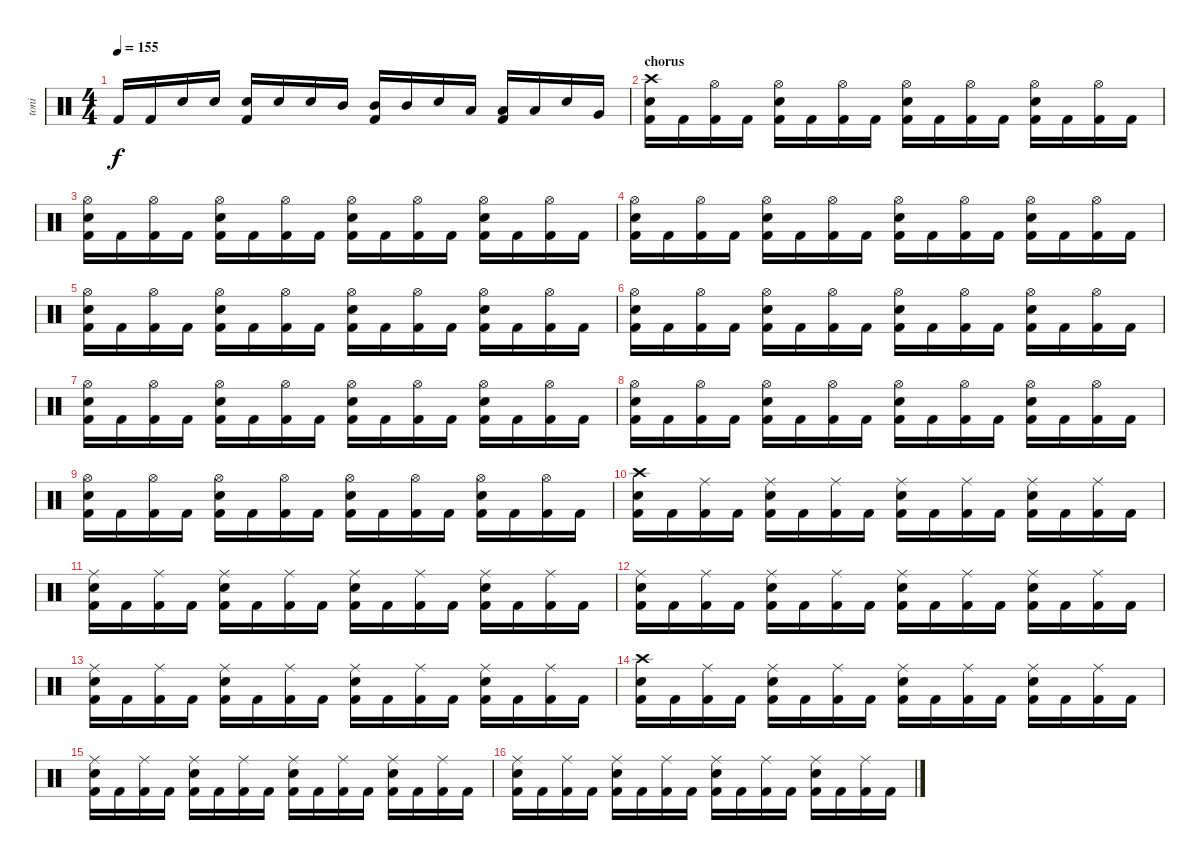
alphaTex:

\track ("toni" "toni") {instrument percussion}
\staff {score}
\articulation defaults
\ts (4 4)
\tempo 155
\clef neutral
\ks c "Kick (hit) 2".16{dy f} "Kick (hit) 2".16 "Snare (hit) 2".16 "Snare (hit) 2".16
("Snare (hit) 2" "Kick (hit) 2").16 "Snare (hit) 2".16 "Snare (hit) 2".16 "Mid Tom (hit)".16 ("Mid Tom (hit)" "Kick (hit) 2").16 "Mid Tom (hit)".16 "Snare (hit) 2".16 "Low Tom (hit)".16 ("Low Tom (hit)" "Kick (hit) 2").16 "Low Tom (hit)".16 "Snare (hit) 2".16 "Very Low Tom (hit)".16 |
\section ("" "chorus")
("Crash high (hit)" "Snare (hit) 2" "Kick (hit) 2").16 "Kick (hit) 2".16 ("Hi-Hat (open)" "Kick (hit) 2").16 "Kick (hit) 2".16 ("Hi-Hat (open)" "Snare (hit) 2" "Kick (hit) 2").16 "Kick (hit) 2".16 ("Hi-Hat (open)" "Kick (hit) 2").16 "Kick (hit) 2".16 ("Hi-Hat (open)" "Snare (hit) 2" "Kick (hit) 2").16 "Kick (hit) 2".16 ("Hi-Hat (open)" "Kick (hit) 2").16 "Kick (hit) 2".16 ("Hi-Hat (open)" "Snare (hit) 2" "Kick (hit) 2").16 "Kick (hit) 2".16 ("Hi-Hat (open)" "Kick (hit) 2").16 "Kick (hit) 2".16 |
("Hi-Hat (open)" "Snare (hit) 2" "Kick (hit) 2").16 "Kick (hit) 2".16 ("Hi-Hat (open)" "Kick (hit) 2").16 "Kick (hit) 2".16 ("Hi-Hat (open)" "Snare (hit) 2" "Kick (hit) 2").16 "Kick (hit) 2".16 ("Hi-Hat (open)" "Kick (hit) 2").16 "Kick (hit) 2".16 ("Hi-Hat (open)" "Snare (hit) 2" "Kick (hit) 2").16 "Kick (hit) 2".16 ("Hi-Hat (open)" "Kick (hit) 2").16 "Kick (hit) 2".16 ("Hi-Hat (open)" "Snare (hit) 2" "Kick (hit) 2").16 "Kick (hit) 2".16 ("Hi-Hat (open)" "Kick (hit) 2").16 "Kick (hit) 2".16 |
("Hi-Hat (open)" "Snare (hit) 2" "Kick (hit) 2").16 "Kick (hit) 2".16 ("Hi-Hat (open)" "Kick (hit) 2").16 "Kick (hit) 2".16 ("Hi-Hat (open)" "Snare (hit) 2" "Kick (hit) 2").16 "Kick (hit) 2".16 ("Hi-Hat (open)" "Kick (hit) 2").16 "Kick (hit) 2".16 ("Hi-Hat (open)" "Snare (hit) 2" "Kick (hit) 2").16 "Kick (hit) 2".16 ("Hi-Hat (open)" "Kick (hit) 2").16 "Kick (hit) 2".16 ("Hi-Hat (open)" "Snare (hit) 2" "Kick (hit) 2").16 "Kick (hit) 2".16 ("Hi-Hat (open)" "Kick (hit) 2").16 "Kick (hit) 2".16 |
("Hi-Hat (open)" "Snare (hit) 2" "Kick (hit) 2").16 "Kick (hit) 2".16 ("Hi-Hat (open)" "Kick (hit) 2").16 "Kick (hit) 2".16 ("Hi-Hat (open)" "Snare (hit) 2" "Kick (hit) 2").16 "Kick (hit) 2".16 ("Hi-Hat (open)" "Kick (hit) 2").16 "Kick (hit) 2".16 ("Hi-Hat (open)" "Snare (hit) 2" "Kick (hit) 2").16 "Kick (hit) 2".16 ("Hi-Hat (open)" "Kick (hit) 2").16 "Kick (hit) 2".16 ("Hi-Hat (open)" "Snare (hit) 2" "Kick (hit) 2").16 "Kick (hit) 2".16 ("Hi-Hat (open)" "Kick (hit) 2").16 "Kick (hit) 2".16 |
("Hi-Hat (open)" "Snare (hit) 2" "Kick (hit) 2").16 "Kick (hit) 2".16 ("Hi-Hat (open)" "Kick (hit) 2").16 "Kick (hit) 2".16 ("Hi-Hat (open)" "Snare (hit) 2" "Kick (hit) 2").16 "Kick (hit) 2".16 ("Hi-Hat (open)" "Kick (hit) 2").16 "Kick (hit) 2".16 ("Hi-Hat (open)" "Snare (hit) 2" "Kick (hit) 2").16 "Kick (hit) 2".16 ("Hi-Hat (open)" "Kick (hit) 2").16 "Kick (hit) 2".16 ("Hi-Hat (open)" "Snare (hit) 2" "Kick (hit) 2").16 "Kick (hit) 2".16 ("Hi-Hat (open)" "Kick (hit) 2").16 "Kick (hit) 2".16 |
("Hi-Hat (open)" "Snare (hit) 2" "Kick (hit) 2").16 "Kick (hit) 2".16 ("Hi-Hat (open)" "Kick (hit) 2").16 "Kick (hit) 2".16 ("Hi-Hat (open)" "Snare (hit) 2" "Kick (hit) 2").16 "Kick (hit) 2".16 ("Hi-Hat (open)" "Kick (hit) 2").16 "Kick (hit) 2".16 ("Hi-Hat (open)" "Snare (hit) 2" "Kick (hit) 2").16 "Kick (hit) 2".16 ("Hi-Hat (open)" "Kick (hit) 2").16 "Kick (hit) 2".16 ("Hi-Hat (open)" "Snare (hit) 2" "Kick (hit) 2").16 "Kick (hit) 2".16 ("Hi-Hat (open)" "Kick (hit) 2").16 "Kick (hit) 2".16 |
("Hi-Hat (open)" "Snare (hit) 2" "Kick (hit) 2").16 "Kick (hit) 2".16 ("Hi-Hat (open)" "Kick (hit) 2").16 "Kick (hit) 2".16 ("Hi-Hat (open)" "Snare (hit) 2" "Kick (hit) 2").16 "Kick (hit) 2".16 ("Hi-Hat (open)" "Kick (hit) 2").16 "Kick (hit) 2".16 ("Hi-Hat (open)" "Snare (hit) 2" "Kick (hit) 2").16 "Kick (hit) 2".16 ("Hi-Hat (open)" "Kick (hit) 2").16 "Kick (hit) 2".16 ("Hi-Hat (open)" "Snare (hit) 2" "Kick (hit) 2").16 "Kick (hit) 2".16 ("Hi-Hat (open)" "Kick (hit) 2").16 "Kick (hit) 2".16 |
("Hi-Hat (open)" "Snare (hit) 2" "Kick (hit) 2").16 "Kick (hit) 2".16 ("Hi-Hat (open)" "Kick (hit) 2").16 "Kick (hit) 2".16 ("Hi-Hat (open)" "Snare (hit) 2" "Kick (hit) 2").16 "Kick (hit) 2".16 ("Hi-Hat (open)" "Kick (hit) 2").16 "Kick (hit) 2".16 ("Hi-Hat (open)" "Snare (hit) 2" "Kick (hit) 2").16 "Kick (hit) 2".16 ("Hi-Hat (open)" "Kick (hit) 2").16 "Kick (hit) 2".16 ("Hi-Hat (open)" "Snare (hit) 2" "Kick (hit) 2").16 "Kick (hit) 2".16 ("Hi-Hat (open)" "Kick (hit) 2").16 "Kick (hit) 2".16 |
("Crash high (hit)" "Snare (hit) 2" "Kick (hit) 2").16 "Kick (hit) 2".16 ("Ride (middle)" "Kick (hit) 2").16 "Kick (hit) 2".16 ("Ride (middle)" "Snare (hit) 2" "Kick (hit) 2").16 "Kick (hit) 2".16 ("Ride (middle)" "Kick (hit) 2").16 "Kick (hit) 2".16 ("Ride (middle)" "Snare (hit) 2" "Kick (hit) 2").16 "Kick (hit) 2".16 ("Ride (middle)" "Kick (hit) 2").16 "Kick (hit) 2".16 ("Ride (middle)" "Snare (hit) 2" "Kick (hit) 2").16 "Kick (hit) 2".16 ("Ride (middle)" "Kick (hit) 2").16 "Kick (hit) 2".16 |
("Ride (middle)" "Snare (hit) 2" "Kick (hit) 2").16 "Kick (hit) 2".16 ("Ride (middle)" "Kick (hit) 2").16 "Kick (hit) 2".16 ("Ride (middle)" "Snare (hit) 2" "Kick (hit) 2").16 "Kick (hit) 2".16 ("Ride (middle)" "Kick (hit) 2").16 "Kick (hit) 2".16 ("Ride (middle)" "Snare (hit) 2" "Kick (hit) 2").16 "Kick (hit) 2".16 ("Ride (middle)" "Kick (hit) 2").16 "Kick (hit) 2".16 ("Ride (middle)" "Snare (hit) 2" "Kick (hit) 2").16 "Kick (hit) 2".16 ("Ride (middle)" "Kick (hit) 2").16 "Kick (hit) 2".16 |
("Ride (middle)" "Snare (hit) 2" "Kick (hit) 2").16 "Kick (hit) 2".16 ("Ride (middle)" "Kick (hit) 2").16 "Kick (hit) 2".16 ("Ride (middle)" "Snare (hit) 2" "Kick (hit) 2").16 "Kick (hit) 2".16 ("Ride (middle)" "Kick (hit) 2").16 "Kick (hit) 2".16 ("Ride (middle)" "Snare (hit) 2" "Kick (hit) 2").16 "Kick (hit) 2".16 ("Ride (middle)" "Kick (hit) 2").16 "Kick (hit) 2".16 ("Ride (middle)" "Snare (hit) 2" "Kick (hit) 2").16 "Kick (hit) 2".16 ("Ride (middle)" "Kick (hit) 2").16 "Kick (hit) 2".16 |
("Ride (middle)" "Snare (hit) 2" "Kick (hit) 2").16 "Kick (hit) 2".16 ("Ride (middle)" "Kick (hit) 2").16 "Kick (hit) 2".16 ("Ride (middle)" "Snare (hit) 2" "Kick (hit) 2").16 "Kick (hit) 2".16 ("Ride (middle)" "Kick (hit) 2").16 "Kick (hit) 2".16 ("Ride (middle)" "Snare (hit) 2" "Kick (hit) 2").16 "Kick (hit) 2".16 ("Ride (middle)" "Kick (hit) 2").16 "Kick (hit) 2".16 ("Ride (middle)" "Snare (hit) 2" "Kick (hit) 2").16 "Kick (hit) 2".16 ("Ride (middle)" "Kick (hit) 2").16 "Kick (hit) 2".16 |
("Crash high (hit)" "Snare (hit) 2" "Kick (hit) 2").16 "Kick (hit) 2".16 ("Ride (middle)" "Kick (hit) 2").16 "Kick (hit) 2".16 ("Ride (middle)" "Snare (hit) 2" "Kick (hit) 2").16 "Kick (hit) 2".16 ("Ride (middle)" "Kick (hit) 2").16 "Kick (hit) 2".16 ("Ride (middle)" "Snare (hit) 2" "Kick (hit) 2").16 "Kick (hit) 2".16 ("Ride (middle)" "Kick (hit) 2").16 "Kick (hit) 2".16 ("Ride (middle)" "Snare (hit) 2" "Kick (hit) 2").16 "Kick (hit) 2".16 ("Ride (middle)" "Kick (hit) 2").16 "Kick (hit) 2".16 |
("Ride (middle)" "Snare (hit) 2" "Kick (hit) 2").16 "Kick (hit) 2".16 ("Ride (middle)" "Kick (hit) 2").16 "Kick (hit) 2".16 ("Ride (middle)" "Snare (hit) 2" "Kick (hit) 2").16 "Kick (hit) 2".16 ("Ride (middle)" "Kick (hit) 2").16 "Kick (hit) 2".16 ("Ride (middle)" "Snare (hit) 2" "Kick (hit) 2").16 "Kick (hit) 2".16 ("Ride (middle)" "Kick (hit) 2").16 "Kick (hit) 2".16 ("Ride (middle)" "Snare (hit) 2" "Kick (hit) 2").16 "Kick (hit) 2".16 ("Ride (middle)" "Kick (hit) 2").16 "Kick (hit) 2".16 |
("Ride (middle)" "Snare (hit) 2" "Kick (hit) 2").16 "Kick (hit) 2".16 ("Ride (middle)" "Kick (hit) 2").16 "Kick (hit) 2".16 ("Ride (middle)" "Snare (hit) 2" "Kick (hit) 2").16 "Kick (hit) 2".16 ("Ride (middle)" "Kick (hit) 2").16 "Kick (hit) 2".16 ("Ride (middle)" "Snare (hit) 2" "Kick (hit) 2").16 "Kick (hit) 2".16 ("Ride (middle)" "Kick (hit) 2").16 "Kick (hit) 2".16 ("Ride (middle)" "Snare (hit) 2" "Kick (hit) 2").16 "Kick (hit) 2".16 ("Ride (middle)" "Kick (hit) 2").16 "Kick (hit) 2".16
